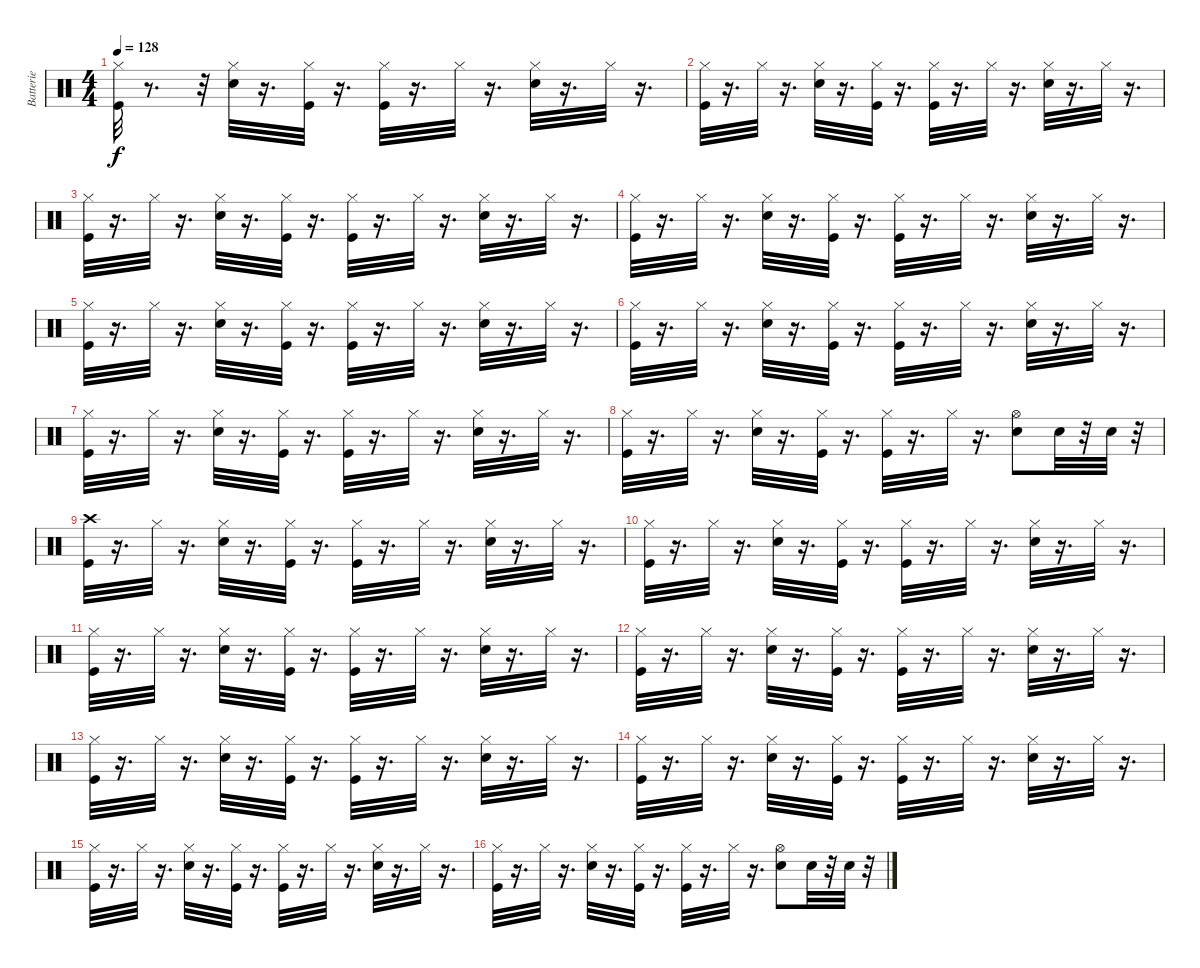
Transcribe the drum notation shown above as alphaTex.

\track ("Batterie" "Batterie") {instrument percussion}
\staff {score}
\articulation defaults
\ts (4 4)
\tempo 128
\clef neutral
\ks c
("Kick (hit)" "Hi-Hat (closed)").32{dy f} r.8{d} r.32 ("Snare (hit) 2" "Hi-Hat (closed)").32 r.16{d} ("Kick (hit)" "Hi-Hat (closed)").32 r.16{d} ("Kick (hit)" "Hi-Hat (closed)").32 r.16{d} "Hi-Hat (closed)".32 r.16{d} ("Snare (hit) 2" "Hi-Hat (closed)").32 r.16{d} "Hi-Hat (closed)".32 r.16{d} |
("Kick (hit)" "Hi-Hat (closed)").32 r.16{d} "Hi-Hat (closed)".32 r.16{d} ("Snare (hit) 2" "Hi-Hat (closed)").32 r.16{d} ("Kick (hit)" "Hi-Hat (closed)").32 r.16{d} ("Kick (hit)" "Hi-Hat (closed)").32 r.16{d} "Hi-Hat (closed)".32 r.16{d} ("Snare (hit) 2" "Hi-Hat (closed)").32 r.16{d} "Hi-Hat (closed)".32 r.16{d} |
("Kick (hit)" "Hi-Hat (closed)").32 r.16{d} "Hi-Hat (closed)".32 r.16{d} ("Snare (hit) 2" "Hi-Hat (closed)").32 r.16{d} ("Kick (hit)" "Hi-Hat (closed)").32 r.16{d} ("Kick (hit)" "Hi-Hat (closed)").32 r.16{d} "Hi-Hat (closed)".32 r.16{d} ("Snare (hit) 2" "Hi-Hat (closed)").32 r.16{d} "Hi-Hat (closed)".32 r.16{d} |
("Kick (hit)" "Hi-Hat (closed)").32 r.16{d} "Hi-Hat (closed)".32 r.16{d} ("Snare (hit) 2" "Hi-Hat (closed)").32 r.16{d} ("Kick (hit)" "Hi-Hat (closed)").32 r.16{d} ("Kick (hit)" "Hi-Hat (closed)").32 r.16{d} "Hi-Hat (closed)".32 r.16{d} ("Snare (hit) 2" "Hi-Hat (closed)").32 r.16{d} "Hi-Hat (closed)".32 r.16{d} |
("Kick (hit)" "Hi-Hat (closed)").32 r.16{d} "Hi-Hat (closed)".32 r.16{d} ("Snare (hit) 2" "Hi-Hat (closed)").32 r.16{d} ("Kick (hit)" "Hi-Hat (closed)").32 r.16{d} ("Kick (hit)" "Hi-Hat (closed)").32 r.16{d} "Hi-Hat (closed)".32 r.16{d} ("Snare (hit) 2" "Hi-Hat (closed)").32 r.16{d} "Hi-Hat (closed)".32 r.16{d} |
("Kick (hit)" "Hi-Hat (closed)").32 r.16{d} "Hi-Hat (closed)".32 r.16{d} ("Snare (hit) 2" "Hi-Hat (closed)").32 r.16{d} ("Kick (hit)" "Hi-Hat (closed)").32 r.16{d} ("Kick (hit)" "Hi-Hat (closed)").32 r.16{d} "Hi-Hat (closed)".32 r.16{d} ("Snare (hit) 2" "Hi-Hat (closed)").32 r.16{d} "Hi-Hat (closed)".32 r.16{d} |
("Kick (hit)" "Hi-Hat (closed)").32 r.16{d} "Hi-Hat (closed)".32 r.16{d} ("Snare (hit) 2" "Hi-Hat (closed)").32 r.16{d} ("Kick (hit)" "Hi-Hat (closed)").32 r.16{d} ("Kick (hit)" "Hi-Hat (closed)").32 r.16{d} "Hi-Hat (closed)".32 r.16{d} ("Snare (hit) 2" "Hi-Hat (closed)").32 r.16{d} "Hi-Hat (closed)".32 r.16{d} |
("Kick (hit)" "Hi-Hat (closed)").32 r.16{d} "Hi-Hat (closed)".32 r.16{d} ("Snare (hit) 2" "Hi-Hat (closed)").32 r.16{d} ("Kick (hit)" "Hi-Hat (closed)").32 r.16{d} ("Kick (hit)" "Hi-Hat (closed)").32 r.16{d} "Hi-Hat (closed)".32 r.16{d} ("Hi-Hat (open)" "Snare (hit) 2").8 "Snare (hit) 2".32 r.32 "Snare (hit) 2".32 r.32 |
("Crash high (hit)" "Kick (hit)").32 r.16{d} "Hi-Hat (closed)".32 r.16{d} ("Snare (hit) 2" "Hi-Hat (closed)").32 r.16{d} ("Kick (hit)" "Hi-Hat (closed)").32 r.16{d} ("Kick (hit)" "Hi-Hat (closed)").32 r.16{d} "Hi-Hat (closed)".32 r.16{d} ("Snare (hit) 2" "Hi-Hat (closed)").32 r.16{d} "Hi-Hat (closed)".32 r.16{d} |
("Kick (hit)" "Hi-Hat (closed)").32 r.16{d} "Hi-Hat (closed)".32 r.16{d} ("Snare (hit) 2" "Hi-Hat (closed)").32 r.16{d} ("Kick (hit)" "Hi-Hat (closed)").32 r.16{d} ("Kick (hit)" "Hi-Hat (closed)").32 r.16{d} "Hi-Hat (closed)".32 r.16{d} ("Snare (hit) 2" "Hi-Hat (closed)").32 r.16{d} "Hi-Hat (closed)".32 r.16{d} |
("Kick (hit)" "Hi-Hat (closed)").32 r.16{d} "Hi-Hat (closed)".32 r.16{d} ("Snare (hit) 2" "Hi-Hat (closed)").32 r.16{d} ("Kick (hit)" "Hi-Hat (closed)").32 r.16{d} ("Kick (hit)" "Hi-Hat (closed)").32 r.16{d} "Hi-Hat (closed)".32 r.16{d} ("Snare (hit) 2" "Hi-Hat (closed)").32 r.16{d} "Hi-Hat (closed)".32 r.16{d} |
("Kick (hit)" "Hi-Hat (closed)").32 r.16{d} "Hi-Hat (closed)".32 r.16{d} ("Snare (hit) 2" "Hi-Hat (closed)").32 r.16{d} ("Kick (hit)" "Hi-Hat (closed)").32 r.16{d} ("Kick (hit)" "Hi-Hat (closed)").32 r.16{d} "Hi-Hat (closed)".32 r.16{d} ("Snare (hit) 2" "Hi-Hat (closed)").32 r.16{d} "Hi-Hat (closed)".32 r.16{d} |
("Kick (hit)" "Hi-Hat (closed)").32 r.16{d} "Hi-Hat (closed)".32 r.16{d} ("Snare (hit) 2" "Hi-Hat (closed)").32 r.16{d} ("Kick (hit)" "Hi-Hat (closed)").32 r.16{d} ("Kick (hit)" "Hi-Hat (closed)").32 r.16{d} "Hi-Hat (closed)".32 r.16{d} ("Snare (hit) 2" "Hi-Hat (closed)").32 r.16{d} "Hi-Hat (closed)".32 r.16{d} |
("Kick (hit)" "Hi-Hat (closed)").32 r.16{d} "Hi-Hat (closed)".32 r.16{d} ("Snare (hit) 2" "Hi-Hat (closed)").32 r.16{d} ("Kick (hit)" "Hi-Hat (closed)").32 r.16{d} ("Kick (hit)" "Hi-Hat (closed)").32 r.16{d} "Hi-Hat (closed)".32 r.16{d} ("Snare (hit) 2" "Hi-Hat (closed)").32 r.16{d} "Hi-Hat (closed)".32 r.16{d} |
("Kick (hit)" "Hi-Hat (closed)").32 r.16{d} "Hi-Hat (closed)".32 r.16{d} ("Snare (hit) 2" "Hi-Hat (closed)").32 r.16{d} ("Kick (hit)" "Hi-Hat (closed)").32 r.16{d} ("Kick (hit)" "Hi-Hat (closed)").32 r.16{d} "Hi-Hat (closed)".32 r.16{d} ("Snare (hit) 2" "Hi-Hat (closed)").32 r.16{d} "Hi-Hat (closed)".32 r.16{d} |
("Kick (hit)" "Hi-Hat (closed)").32 r.16{d} "Hi-Hat (closed)".32 r.16{d} ("Snare (hit) 2" "Hi-Hat (closed)").32 r.16{d} ("Kick (hit)" "Hi-Hat (closed)").32 r.16{d} ("Kick (hit)" "Hi-Hat (closed)").32 r.16{d} "Hi-Hat (closed)".32 r.16{d} ("Hi-Hat (open)" "Snare (hit) 2").8 "Snare (hit) 2".32 r.32 "Snare (hit) 2".32 r.32
